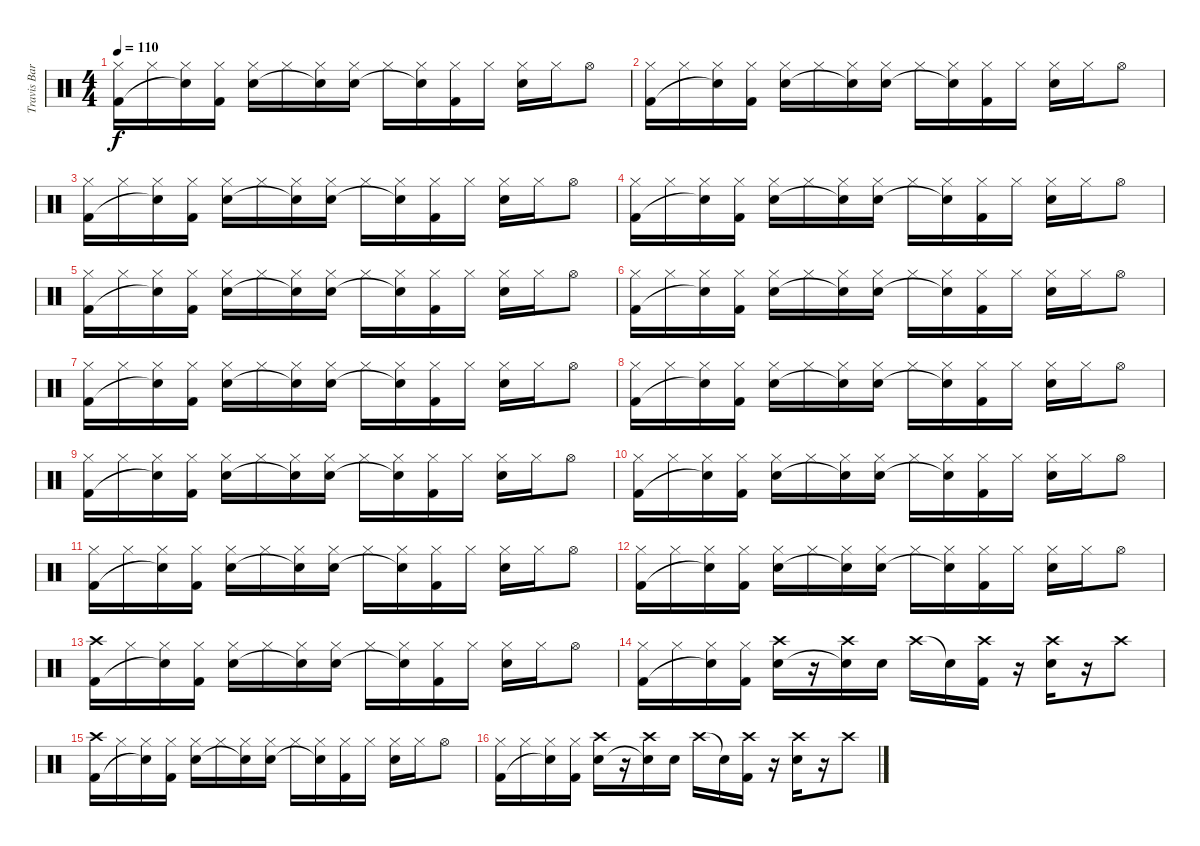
\track ("Travis Barker (Drums)" "Travis Bar") {instrument percussion}
\staff {score}
\articulation defaults
\ts (4 4)
\tempo 110
\clef neutral
\ks c
("Hi-Hat (closed)" "Kick (hit) 2").16{dy f} "Hi-Hat (closed)".16 ("Hi-Hat (closed)" "Snare (hit)"{t}).16 ("Hi-Hat (closed)" "Kick (hit) 2").16 ("Hi-Hat (closed)" "Electric Snare (hit)").16 "Hi-Hat (closed)".16 ("Hi-Hat (closed)" "Snare (hit)"{t}).16 ("Hi-Hat (closed)" "Electric Snare (hit)").16 "Hi-Hat (closed)".16 ("Hi-Hat (closed)" "Snare (hit)"{t}).16 ("Hi-Hat (closed)" "Kick (hit) 2").16 "Hi-Hat (closed)".16 ("Hi-Hat (closed)" "Electric Snare (hit)").16 "Hi-Hat (closed)".16 "Hi-Hat (open)".8 |
("Hi-Hat (closed)" "Kick (hit) 2").16 "Hi-Hat (closed)".16 ("Hi-Hat (closed)" "Snare (hit)"{t}).16 ("Hi-Hat (closed)" "Kick (hit) 2").16 ("Hi-Hat (closed)" "Electric Snare (hit)").16 "Hi-Hat (closed)".16 ("Hi-Hat (closed)" "Snare (hit)"{t}).16 ("Hi-Hat (closed)" "Electric Snare (hit)").16 "Hi-Hat (closed)".16 ("Hi-Hat (closed)" "Snare (hit)"{t}).16 ("Hi-Hat (closed)" "Kick (hit) 2").16 "Hi-Hat (closed)".16 ("Hi-Hat (closed)" "Electric Snare (hit)").16 "Hi-Hat (closed)".16 "Hi-Hat (open)".8 |
("Hi-Hat (closed)" "Kick (hit) 2").16 "Hi-Hat (closed)".16 ("Hi-Hat (closed)" "Snare (hit)"{t}).16 ("Hi-Hat (closed)" "Kick (hit) 2").16 ("Hi-Hat (closed)" "Electric Snare (hit)").16 "Hi-Hat (closed)".16 ("Hi-Hat (closed)" "Snare (hit)"{t}).16 ("Hi-Hat (closed)" "Electric Snare (hit)").16 "Hi-Hat (closed)".16 ("Hi-Hat (closed)" "Snare (hit)"{t}).16 ("Hi-Hat (closed)" "Kick (hit) 2").16 "Hi-Hat (closed)".16 ("Hi-Hat (closed)" "Electric Snare (hit)").16 "Hi-Hat (closed)".16 "Hi-Hat (open)".8 |
("Hi-Hat (closed)" "Kick (hit) 2").16 "Hi-Hat (closed)".16 ("Hi-Hat (closed)" "Snare (hit)"{t}).16 ("Hi-Hat (closed)" "Kick (hit) 2").16 ("Hi-Hat (closed)" "Electric Snare (hit)").16 "Hi-Hat (closed)".16 ("Hi-Hat (closed)" "Snare (hit)"{t}).16 ("Hi-Hat (closed)" "Electric Snare (hit)").16 "Hi-Hat (closed)".16 ("Hi-Hat (closed)" "Snare (hit)"{t}).16 ("Hi-Hat (closed)" "Kick (hit) 2").16 "Hi-Hat (closed)".16 ("Hi-Hat (closed)" "Electric Snare (hit)").16 "Hi-Hat (closed)".16 "Hi-Hat (open)".8 |
("Hi-Hat (closed)" "Kick (hit) 2").16 "Hi-Hat (closed)".16 ("Hi-Hat (closed)" "Snare (hit)"{t}).16 ("Hi-Hat (closed)" "Kick (hit) 2").16 ("Hi-Hat (closed)" "Electric Snare (hit)").16 "Hi-Hat (closed)".16 ("Hi-Hat (closed)" "Snare (hit)"{t}).16 ("Hi-Hat (closed)" "Electric Snare (hit)").16 "Hi-Hat (closed)".16 ("Hi-Hat (closed)" "Snare (hit)"{t}).16 ("Hi-Hat (closed)" "Kick (hit) 2").16 "Hi-Hat (closed)".16 ("Hi-Hat (closed)" "Electric Snare (hit)").16 "Hi-Hat (closed)".16 "Hi-Hat (open)".8 |
("Hi-Hat (closed)" "Kick (hit) 2").16 "Hi-Hat (closed)".16 ("Hi-Hat (closed)" "Snare (hit)"{t}).16 ("Hi-Hat (closed)" "Kick (hit) 2").16 ("Hi-Hat (closed)" "Electric Snare (hit)").16 "Hi-Hat (closed)".16 ("Hi-Hat (closed)" "Snare (hit)"{t}).16 ("Hi-Hat (closed)" "Electric Snare (hit)").16 "Hi-Hat (closed)".16 ("Hi-Hat (closed)" "Snare (hit)"{t}).16 ("Hi-Hat (closed)" "Kick (hit) 2").16 "Hi-Hat (closed)".16 ("Hi-Hat (closed)" "Electric Snare (hit)").16 "Hi-Hat (closed)".16 "Hi-Hat (open)".8 |
("Hi-Hat (closed)" "Kick (hit) 2").16 "Hi-Hat (closed)".16 ("Hi-Hat (closed)" "Snare (hit)"{t}).16 ("Hi-Hat (closed)" "Kick (hit) 2").16 ("Hi-Hat (closed)" "Electric Snare (hit)").16 "Hi-Hat (closed)".16 ("Hi-Hat (closed)" "Snare (hit)"{t}).16 ("Hi-Hat (closed)" "Electric Snare (hit)").16 "Hi-Hat (closed)".16 ("Hi-Hat (closed)" "Snare (hit)"{t}).16 ("Hi-Hat (closed)" "Kick (hit) 2").16 "Hi-Hat (closed)".16 ("Hi-Hat (closed)" "Electric Snare (hit)").16 "Hi-Hat (closed)".16 "Hi-Hat (open)".8 |
("Hi-Hat (closed)" "Kick (hit) 2").16 "Hi-Hat (closed)".16 ("Hi-Hat (closed)" "Snare (hit)"{t}).16 ("Hi-Hat (closed)" "Kick (hit) 2").16 ("Hi-Hat (closed)" "Electric Snare (hit)").16 "Hi-Hat (closed)".16 ("Hi-Hat (closed)" "Snare (hit)"{t}).16 ("Hi-Hat (closed)" "Electric Snare (hit)").16 "Hi-Hat (closed)".16 ("Hi-Hat (closed)" "Snare (hit)"{t}).16 ("Hi-Hat (closed)" "Kick (hit) 2").16 "Hi-Hat (closed)".16 ("Hi-Hat (closed)" "Electric Snare (hit)").16 "Hi-Hat (closed)".16 "Hi-Hat (open)".8 |
("Hi-Hat (closed)" "Kick (hit) 2").16 "Hi-Hat (closed)".16 ("Hi-Hat (closed)" "Snare (hit)"{t}).16 ("Hi-Hat (closed)" "Kick (hit) 2").16 ("Hi-Hat (closed)" "Electric Snare (hit)").16 "Hi-Hat (closed)".16 ("Hi-Hat (closed)" "Snare (hit)"{t}).16 ("Hi-Hat (closed)" "Electric Snare (hit)").16 "Hi-Hat (closed)".16 ("Hi-Hat (closed)" "Snare (hit)"{t}).16 ("Hi-Hat (closed)" "Kick (hit) 2").16 "Hi-Hat (closed)".16 ("Hi-Hat (closed)" "Electric Snare (hit)").16 "Hi-Hat (closed)".16 "Hi-Hat (open)".8 |
("Hi-Hat (closed)" "Kick (hit) 2").16 "Hi-Hat (closed)".16 ("Hi-Hat (closed)" "Snare (hit)"{t}).16 ("Hi-Hat (closed)" "Kick (hit) 2").16 ("Hi-Hat (closed)" "Electric Snare (hit)").16 "Hi-Hat (closed)".16 ("Hi-Hat (closed)" "Snare (hit)"{t}).16 ("Hi-Hat (closed)" "Electric Snare (hit)").16 "Hi-Hat (closed)".16 ("Hi-Hat (closed)" "Snare (hit)"{t}).16 ("Hi-Hat (closed)" "Kick (hit) 2").16 "Hi-Hat (closed)".16 ("Hi-Hat (closed)" "Electric Snare (hit)").16 "Hi-Hat (closed)".16 "Hi-Hat (open)".8 |
("Hi-Hat (closed)" "Kick (hit) 2").16 "Hi-Hat (closed)".16 ("Hi-Hat (closed)" "Snare (hit)"{t}).16 ("Hi-Hat (closed)" "Kick (hit) 2").16 ("Hi-Hat (closed)" "Electric Snare (hit)").16 "Hi-Hat (closed)".16 ("Hi-Hat (closed)" "Snare (hit)"{t}).16 ("Hi-Hat (closed)" "Electric Snare (hit)").16 "Hi-Hat (closed)".16 ("Hi-Hat (closed)" "Snare (hit)"{t}).16 ("Hi-Hat (closed)" "Kick (hit) 2").16 "Hi-Hat (closed)".16 ("Hi-Hat (closed)" "Electric Snare (hit)").16 "Hi-Hat (closed)".16 "Hi-Hat (open)".8 |
("Hi-Hat (closed)" "Kick (hit) 2").16 "Hi-Hat (closed)".16 ("Hi-Hat (closed)" "Snare (hit)"{t}).16 ("Hi-Hat (closed)" "Kick (hit) 2").16 ("Hi-Hat (closed)" "Electric Snare (hit)").16 "Hi-Hat (closed)".16 ("Hi-Hat (closed)" "Snare (hit)"{t}).16 ("Hi-Hat (closed)" "Electric Snare (hit)").16 "Hi-Hat (closed)".16 ("Hi-Hat (closed)" "Snare (hit)"{t}).16 ("Hi-Hat (closed)" "Kick (hit) 2").16 "Hi-Hat (closed)".16 ("Hi-Hat (closed)" "Electric Snare (hit)").16 "Hi-Hat (closed)".16 "Hi-Hat (open)".8 |
("Crash high (hit)" "Kick (hit) 2").16 "Hi-Hat (closed)".16 ("Hi-Hat (closed)" "Snare (hit)"{t}).16 ("Hi-Hat (closed)" "Kick (hit) 2").16 ("Hi-Hat (closed)" "Electric Snare (hit)").16 "Hi-Hat (closed)".16 ("Hi-Hat (closed)" "Snare (hit)"{t}).16 ("Hi-Hat (closed)" "Electric Snare (hit)").16 "Hi-Hat (closed)".16 ("Hi-Hat (closed)" "Snare (hit)"{t}).16 ("Hi-Hat (closed)" "Kick (hit) 2").16 "Hi-Hat (closed)".16 ("Hi-Hat (closed)" "Electric Snare (hit)").16 "Hi-Hat (closed)".16 "Hi-Hat (open)".8 |
("Hi-Hat (closed)" "Kick (hit) 2").16 "Hi-Hat (closed)".16 ("Hi-Hat (closed)" "Snare (hit)"{t}).16 ("Hi-Hat (closed)" "Kick (hit) 2").16 ("Crash high (hit)" "Electric Snare (hit)").16 r.16 ("Crash high (hit)" "Snare (hit)"{t}).16 "Electric Snare (hit)".16 "Crash high (hit)".16 "Snare (hit)"{t}.16 ("Crash high (hit)" "Kick (hit) 2").16 r.16 ("Crash high (hit)" "Electric Snare (hit)").16 r.16 "Crash high (hit)".8 |
("Crash high (hit)" "Kick (hit) 2").16 "Hi-Hat (closed)".16 ("Hi-Hat (closed)" "Snare (hit)"{t}).16 ("Hi-Hat (closed)" "Kick (hit) 2").16 ("Hi-Hat (closed)" "Electric Snare (hit)").16 "Hi-Hat (closed)".16 ("Hi-Hat (closed)" "Snare (hit)"{t}).16 ("Hi-Hat (closed)" "Electric Snare (hit)").16 "Hi-Hat (closed)".16 ("Hi-Hat (closed)" "Snare (hit)"{t}).16 ("Hi-Hat (closed)" "Kick (hit) 2").16 "Hi-Hat (closed)".16 ("Hi-Hat (closed)" "Electric Snare (hit)").16 "Hi-Hat (closed)".16 "Hi-Hat (open)".8 |
("Hi-Hat (closed)" "Kick (hit) 2").16 "Hi-Hat (closed)".16 ("Hi-Hat (closed)" "Snare (hit)"{t}).16 ("Hi-Hat (closed)" "Kick (hit) 2").16 ("Crash high (hit)" "Electric Snare (hit)").16 r.16 ("Crash high (hit)" "Snare (hit)"{t}).16 "Electric Snare (hit)".16 "Crash high (hit)".16 "Snare (hit)"{t}.16 ("Crash high (hit)" "Kick (hit) 2").16 r.16 ("Crash high (hit)" "Electric Snare (hit)").16 r.16 "Crash high (hit)".8
